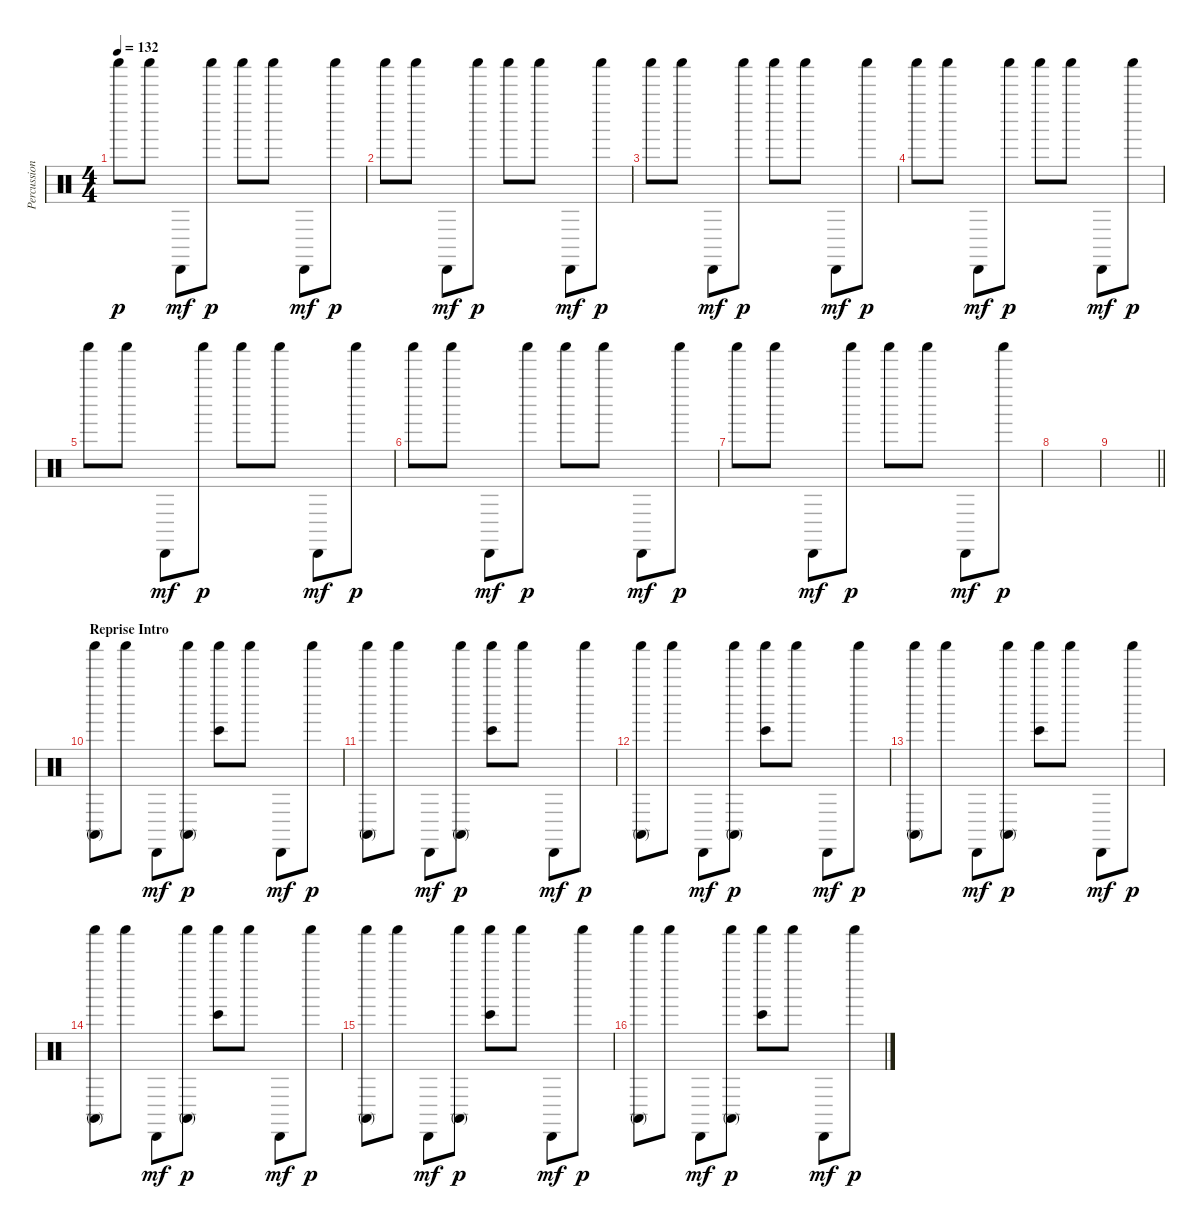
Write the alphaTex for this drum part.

\track ("Percussions" "Percussion") {instrument percussion}
\staff {score}
\articulation defaults
\ts (4 4)
\tempo 132
\clef neutral
\ks c "Shaker (hit)".8{dy p} "Shaker (hit)".8 "Cabasa (hit)".8{dy mf} "Shaker (hit)".8{dy p} "Shaker (hit)".8 "Shaker (hit)".8 "Cabasa (hit)".8{dy mf} "Shaker (hit)".8{dy p}
|
"Shaker (hit)".8 "Shaker (hit)".8 "Cabasa (hit)".8{dy mf} "Shaker (hit)".8{dy p} "Shaker (hit)".8 "Shaker (hit)".8 "Cabasa (hit)".8{dy mf} "Shaker (hit)".8{dy p} |
"Shaker (hit)".8 "Shaker (hit)".8 "Cabasa (hit)".8{dy mf} "Shaker (hit)".8{dy p} "Shaker (hit)".8 "Shaker (hit)".8 "Cabasa (hit)".8{dy mf} "Shaker (hit)".8{dy p} |
"Shaker (hit)".8 "Shaker (hit)".8 "Cabasa (hit)".8{dy mf} "Shaker (hit)".8{dy p} "Shaker (hit)".8 "Shaker (hit)".8 "Cabasa (hit)".8{dy mf} "Shaker (hit)".8{dy p} |
"Shaker (hit)".8 "Shaker (hit)".8 "Cabasa (hit)".8{dy mf} "Shaker (hit)".8{dy p} "Shaker (hit)".8 "Shaker (hit)".8 "Cabasa (hit)".8{dy mf} "Shaker (hit)".8{dy p} |
"Shaker (hit)".8 "Shaker (hit)".8 "Cabasa (hit)".8{dy mf} "Shaker (hit)".8{dy p} "Shaker (hit)".8 "Shaker (hit)".8 "Cabasa (hit)".8{dy mf} "Shaker (hit)".8{dy p} |
"Shaker (hit)".8 "Shaker (hit)".8 "Cabasa (hit)".8{dy mf} "Shaker (hit)".8{dy p} "Shaker (hit)".8 "Shaker (hit)".8 "Cabasa (hit)".8{dy mf} "Shaker (hit)".8{dy p} |
|
\barLineRight lightlight
|
\section ("" "Reprise Intro")
("Shaker (hit)" "Conga high (mute)").8 "Shaker (hit)".8 "Cabasa (hit)".8{dy mf} ("Shaker (hit)" "Conga high (mute)").8{dy p} ("Shaker (hit)" "Bongo High (hit)").8 "Shaker (hit)".8 "Cabasa (hit)".8{dy mf} "Shaker (hit)".8{dy p} |
("Shaker (hit)" "Conga high (mute)").8 "Shaker (hit)".8 "Cabasa (hit)".8{dy mf} ("Shaker (hit)" "Conga high (mute)").8{dy p} ("Shaker (hit)" "Bongo High (hit)").8 "Shaker (hit)".8 "Cabasa (hit)".8{dy mf} "Shaker (hit)".8{dy p} |
("Shaker (hit)" "Conga high (mute)").8 "Shaker (hit)".8 "Cabasa (hit)".8{dy mf} ("Shaker (hit)" "Conga high (mute)").8{dy p} ("Shaker (hit)" "Bongo High (hit)").8 "Shaker (hit)".8 "Cabasa (hit)".8{dy mf} "Shaker (hit)".8{dy p} |
("Shaker (hit)" "Conga high (mute)").8 "Shaker (hit)".8 "Cabasa (hit)".8{dy mf} ("Shaker (hit)" "Conga high (mute)").8{dy p} ("Shaker (hit)" "Bongo High (hit)").8 "Shaker (hit)".8 "Cabasa (hit)".8{dy mf} "Shaker (hit)".8{dy p} |
("Shaker (hit)" "Conga high (mute)").8 "Shaker (hit)".8 "Cabasa (hit)".8{dy mf} ("Shaker (hit)" "Conga high (mute)").8{dy p} ("Shaker (hit)" "Bongo High (hit)").8 "Shaker (hit)".8 "Cabasa (hit)".8{dy mf} "Shaker (hit)".8{dy p} |
("Shaker (hit)" "Conga high (mute)").8 "Shaker (hit)".8 "Cabasa (hit)".8{dy mf} ("Shaker (hit)" "Conga high (mute)").8{dy p} ("Shaker (hit)" "Bongo High (hit)").8 "Shaker (hit)".8 "Cabasa (hit)".8{dy mf} "Shaker (hit)".8{dy p} |
("Shaker (hit)" "Conga high (mute)").8 "Shaker (hit)".8 "Cabasa (hit)".8{dy mf} ("Shaker (hit)" "Conga high (mute)").8{dy p} ("Shaker (hit)" "Bongo High (hit)").8 "Shaker (hit)".8 "Cabasa (hit)".8{dy mf} "Shaker (hit)".8{dy p}
